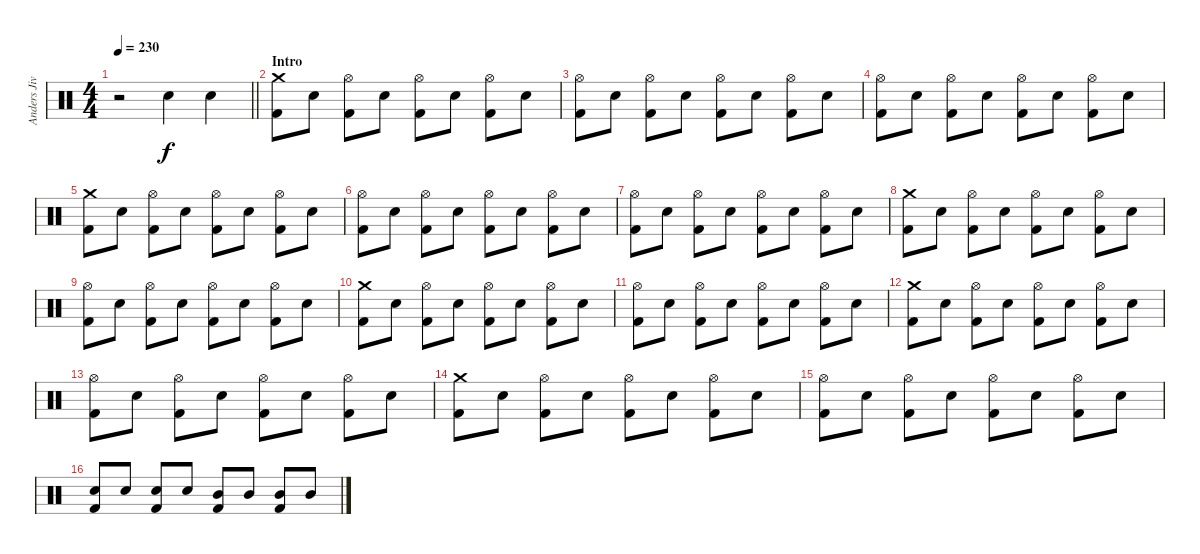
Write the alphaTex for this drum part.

\track ("Anders Jivarp" "Anders Jiv") {instrument percussion}
\staff {score}
\articulation defaults
\ts (4 4)
\tempo 230
\clef neutral
\barLineRight lightlight
\ks c
r.2{dy f} "Electric Snare (hit)".4 "Electric Snare (hit)".4 |
\section ("" "Intro")
("Kick (hit) 2" "Crash medium (hit)").8 "Electric Snare (hit)".8 ("Kick (hit) 2" "Hi-Hat (open)").8 "Electric Snare (hit)".8 ("Kick (hit) 2" "Hi-Hat (open)").8 "Electric Snare (hit)".8 ("Kick (hit) 2" "Hi-Hat (open)").8 "Electric Snare (hit)".8 |
("Kick (hit) 2" "Hi-Hat (open)").8 "Electric Snare (hit)".8 ("Kick (hit) 2" "Hi-Hat (open)").8 "Electric Snare (hit)".8 ("Kick (hit) 2" "Hi-Hat (open)").8 "Electric Snare (hit)".8 ("Kick (hit) 2" "Hi-Hat (open)").8 "Electric Snare (hit)".8 |
("Kick (hit) 2" "Hi-Hat (open)").8 "Electric Snare (hit)".8 ("Kick (hit) 2" "Hi-Hat (open)").8 "Electric Snare (hit)".8 ("Kick (hit) 2" "Hi-Hat (open)").8 "Electric Snare (hit)".8 ("Kick (hit) 2" "Hi-Hat (open)").8 "Electric Snare (hit)".8 |
("Kick (hit) 2" "Crash medium (hit)").8 "Electric Snare (hit)".8 ("Kick (hit) 2" "Hi-Hat (open)").8 "Electric Snare (hit)".8 ("Kick (hit) 2" "Hi-Hat (open)").8 "Electric Snare (hit)".8 ("Kick (hit) 2" "Hi-Hat (open)").8 "Electric Snare (hit)".8 |
("Kick (hit) 2" "Hi-Hat (open)").8 "Electric Snare (hit)".8 ("Kick (hit) 2" "Hi-Hat (open)").8 "Electric Snare (hit)".8 ("Kick (hit) 2" "Hi-Hat (open)").8 "Electric Snare (hit)".8 ("Kick (hit) 2" "Hi-Hat (open)").8 "Electric Snare (hit)".8 |
("Kick (hit) 2" "Hi-Hat (open)").8 "Electric Snare (hit)".8 ("Kick (hit) 2" "Hi-Hat (open)").8 "Electric Snare (hit)".8 ("Kick (hit) 2" "Hi-Hat (open)").8 "Electric Snare (hit)".8 ("Kick (hit) 2" "Hi-Hat (open)").8 "Electric Snare (hit)".8 |
("Kick (hit) 2" "Crash medium (hit)").8 "Electric Snare (hit)".8 ("Kick (hit) 2" "Hi-Hat (open)").8 "Electric Snare (hit)".8 ("Kick (hit) 2" "Hi-Hat (open)").8 "Electric Snare (hit)".8 ("Kick (hit) 2" "Hi-Hat (open)").8 "Electric Snare (hit)".8 |
("Kick (hit) 2" "Hi-Hat (open)").8 "Electric Snare (hit)".8 ("Kick (hit) 2" "Hi-Hat (open)").8 "Electric Snare (hit)".8 ("Kick (hit) 2" "Hi-Hat (open)").8 "Electric Snare (hit)".8 ("Kick (hit) 2" "Hi-Hat (open)").8 "Electric Snare (hit)".8 |
("Kick (hit) 2" "Crash medium (hit)").8 "Electric Snare (hit)".8 ("Kick (hit) 2" "Hi-Hat (open)").8 "Electric Snare (hit)".8 ("Kick (hit) 2" "Hi-Hat (open)").8 "Electric Snare (hit)".8 ("Kick (hit) 2" "Hi-Hat (open)").8 "Electric Snare (hit)".8 |
("Kick (hit) 2" "Hi-Hat (open)").8 "Electric Snare (hit)".8 ("Kick (hit) 2" "Hi-Hat (open)").8 "Electric Snare (hit)".8 ("Kick (hit) 2" "Hi-Hat (open)").8 "Electric Snare (hit)".8 ("Kick (hit) 2" "Hi-Hat (open)").8 "Electric Snare (hit)".8 |
("Kick (hit) 2" "Crash medium (hit)").8 "Electric Snare (hit)".8 ("Kick (hit) 2" "Hi-Hat (open)").8 "Electric Snare (hit)".8 ("Kick (hit) 2" "Hi-Hat (open)").8 "Electric Snare (hit)".8 ("Kick (hit) 2" "Hi-Hat (open)").8 "Electric Snare (hit)".8 |
("Kick (hit) 2" "Hi-Hat (open)").8 "Electric Snare (hit)".8 ("Kick (hit) 2" "Hi-Hat (open)").8 "Electric Snare (hit)".8 ("Kick (hit) 2" "Hi-Hat (open)").8 "Electric Snare (hit)".8 ("Kick (hit) 2" "Hi-Hat (open)").8 "Electric Snare (hit)".8 |
("Kick (hit) 2" "Crash medium (hit)").8 "Electric Snare (hit)".8 ("Kick (hit) 2" "Hi-Hat (open)").8 "Electric Snare (hit)".8 ("Kick (hit) 2" "Hi-Hat (open)").8 "Electric Snare (hit)".8 ("Kick (hit) 2" "Hi-Hat (open)").8 "Electric Snare (hit)".8 |
("Kick (hit) 2" "Hi-Hat (open)").8 "Electric Snare (hit)".8 ("Kick (hit) 2" "Hi-Hat (open)").8 "Electric Snare (hit)".8 ("Kick (hit) 2" "Hi-Hat (open)").8 "Electric Snare (hit)".8 ("Kick (hit) 2" "Hi-Hat (open)").8 "Electric Snare (hit)".8 |
("Kick (hit) 2" "Electric Snare (hit)").8 "Electric Snare (hit)".8 ("Kick (hit) 2" "Electric Snare (hit)").8 "Electric Snare (hit)".8 ("Kick (hit) 2" "Mid Tom (hit)").8 "Mid Tom (hit)".8 ("Kick (hit) 2" "Mid Tom (hit)").8 "Mid Tom (hit)".8
